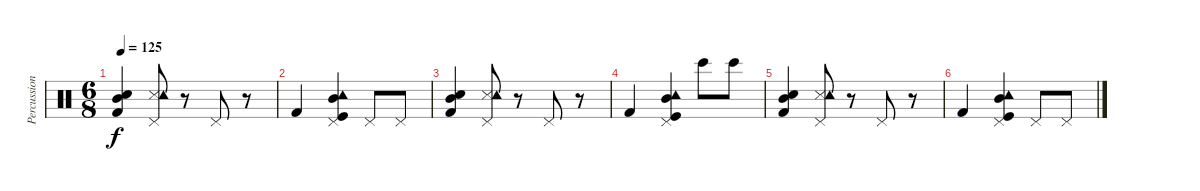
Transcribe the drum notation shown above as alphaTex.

\track ("Percussion" "Percussion") {instrument percussion}
\staff {score}
\articulation defaults
\ts (6 8)
\tempo 125
\clef neutral
\ks c
("Kick (hit) 2" "Mid Tom (hit)" "Snare (hit)").4{dy f} ("Pedal Hi-Hat (hit)" "Snare (side stick) 3" "Tambourine (hit)").8 r.8 "Pedal Hi-Hat (hit)".8 r.8 |
"Kick (hit) 2".4 ("Pedal Hi-Hat (hit)" "Mid Tom (hit)" "Kick (hit)" "Tambourine (hit)").4 "Pedal Hi-Hat (hit)".8 "Pedal Hi-Hat (hit)".8 |
("Kick (hit) 2" "Mid Tom (hit)" "Snare (hit)").4 ("Pedal Hi-Hat (hit)" "Snare (side stick) 3" "Tambourine (hit)").8 r.8 "Pedal Hi-Hat (hit)".8 r.8 |
"Kick (hit) 2".4 ("Pedal Hi-Hat (hit)" "Mid Tom (hit)" "Kick (hit)" "Tambourine (hit)").4 "Bongo High (hit)".8 "Bongo High (hit)".8 |
("Kick (hit) 2" "Mid Tom (hit)" "Snare (hit)").4 ("Pedal Hi-Hat (hit)" "Snare (side stick) 3" "Tambourine (hit)").8 r.8 "Pedal Hi-Hat (hit)".8 r.8 |
"Kick (hit) 2".4 ("Pedal Hi-Hat (hit)" "Mid Tom (hit)" "Kick (hit)" "Tambourine (hit)").4 "Pedal Hi-Hat (hit)".8 "Pedal Hi-Hat (hit)".8
